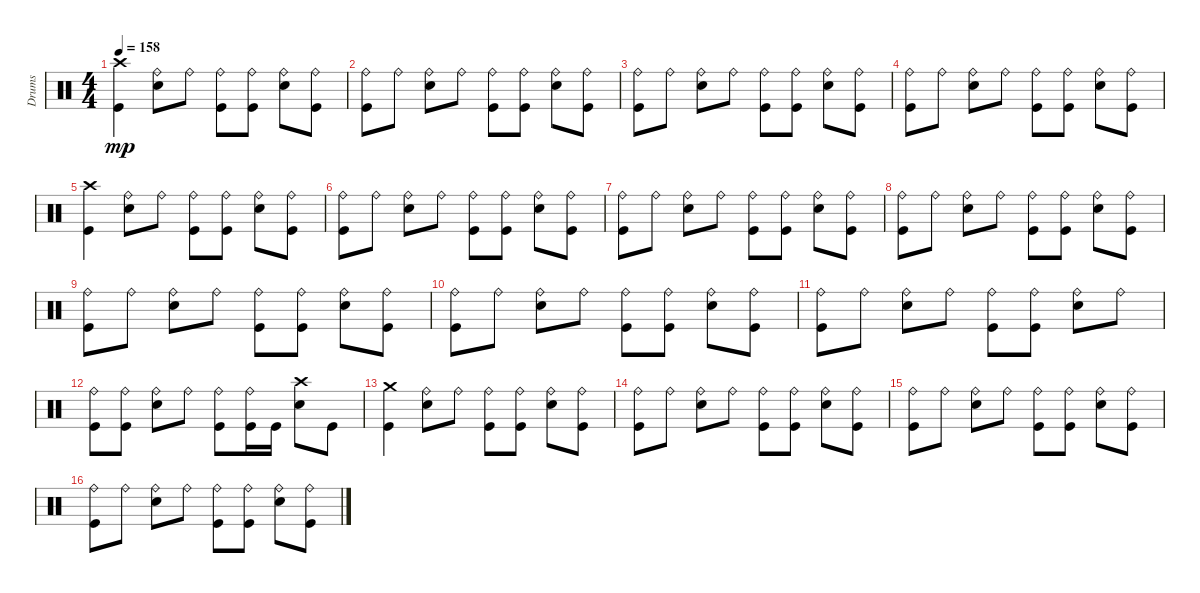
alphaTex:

\track ("Drums" "Drums") {instrument percussion}
\staff {score}
\articulation defaults
\ts (4 4)
\tempo 158
\clef neutral
\ks c
("Crash high (hit)" "Kick (hit)").4{dy mp} ("Ride (bell)" "Snare (hit) 2").8 "Ride (bell)".8 ("Ride (bell)" "Kick (hit)").8 ("Ride (bell)" "Kick (hit)").8 ("Ride (bell)" "Snare (hit) 2").8 ("Ride (bell)" "Kick (hit)").8 |
("Ride (bell)" "Kick (hit)").8 "Ride (bell)".8 ("Ride (bell)" "Snare (hit) 2").8 "Ride (bell)".8 ("Ride (bell)" "Kick (hit)").8 ("Ride (bell)" "Kick (hit)").8 ("Ride (bell)" "Snare (hit) 2").8 ("Ride (bell)" "Kick (hit)").8 |
("Ride (bell)" "Kick (hit)").8 "Ride (bell)".8 ("Ride (bell)" "Snare (hit) 2").8 "Ride (bell)".8 ("Ride (bell)" "Kick (hit)").8 ("Ride (bell)" "Kick (hit)").8 ("Ride (bell)" "Snare (hit) 2").8 ("Ride (bell)" "Kick (hit)").8 |
("Ride (bell)" "Kick (hit)").8 "Ride (bell)".8 ("Ride (bell)" "Snare (hit) 2").8 "Ride (bell)".8 ("Ride (bell)" "Kick (hit)").8 ("Ride (bell)" "Kick (hit)").8 ("Ride (bell)" "Snare (hit) 2").8 ("Ride (bell)" "Kick (hit)").8 |
("Crash high (hit)" "Kick (hit)").4 ("Ride (bell)" "Snare (hit) 2").8 "Ride (bell)".8 ("Ride (bell)" "Kick (hit)").8 ("Ride (bell)" "Kick (hit)").8 ("Ride (bell)" "Snare (hit) 2").8 ("Ride (bell)" "Kick (hit)").8 |
("Ride (bell)" "Kick (hit)").8 "Ride (bell)".8 ("Ride (bell)" "Snare (hit) 2").8 "Ride (bell)".8 ("Ride (bell)" "Kick (hit)").8 ("Ride (bell)" "Kick (hit)").8 ("Ride (bell)" "Snare (hit) 2").8 ("Ride (bell)" "Kick (hit)").8 |
("Ride (bell)" "Kick (hit)").8 "Ride (bell)".8 ("Ride (bell)" "Snare (hit) 2").8 "Ride (bell)".8 ("Ride (bell)" "Kick (hit)").8 ("Ride (bell)" "Kick (hit)").8 ("Ride (bell)" "Snare (hit) 2").8 ("Ride (bell)" "Kick (hit)").8 |
("Ride (bell)" "Kick (hit)").8 "Ride (bell)".8 ("Ride (bell)" "Snare (hit) 2").8 "Ride (bell)".8 ("Ride (bell)" "Kick (hit)").8 ("Ride (bell)" "Kick (hit)").8 ("Ride (bell)" "Snare (hit) 2").8 ("Ride (bell)" "Kick (hit)").8 |
("Ride (bell)" "Kick (hit)").8 "Ride (bell)".8 ("Ride (bell)" "Snare (hit) 2").8 "Ride (bell)".8 ("Ride (bell)" "Kick (hit)").8 ("Ride (bell)" "Kick (hit)").8 ("Ride (bell)" "Snare (hit) 2").8 ("Ride (bell)" "Kick (hit)").8 |
("Ride (bell)" "Kick (hit)").8 "Ride (bell)".8 ("Ride (bell)" "Snare (hit) 2").8 "Ride (bell)".8 ("Ride (bell)" "Kick (hit)").8 ("Ride (bell)" "Kick (hit)").8 ("Ride (bell)" "Snare (hit) 2").8 ("Ride (bell)" "Kick (hit)").8 |
("Ride (bell)" "Kick (hit)").8 "Ride (bell)".8 ("Ride (bell)" "Snare (hit) 2").8 "Ride (bell)".8 ("Ride (bell)" "Kick (hit)").8 ("Ride (bell)" "Kick (hit)").8 ("Ride (bell)" "Snare (hit) 2").8 "Ride (bell)".8 |
("Ride (bell)" "Kick (hit)").8 ("Ride (bell)" "Kick (hit)").8 ("Ride (bell)" "Snare (hit) 2").8 "Ride (bell)".8 ("Ride (bell)" "Kick (hit)").8 ("Ride (bell)" "Kick (hit)").16 "Kick (hit)".16 ("Crash high (hit)" "Snare (hit) 2").8 "Kick (hit)".8 |
("Crash medium (hit)" "Kick (hit)").4 ("Ride (bell)" "Snare (hit) 2").8 "Ride (bell)".8 ("Ride (bell)" "Kick (hit)").8 ("Ride (bell)" "Kick (hit)").8 ("Ride (bell)" "Snare (hit) 2").8 ("Ride (bell)" "Kick (hit)").8 |
("Ride (bell)" "Kick (hit)").8 "Ride (bell)".8 ("Ride (bell)" "Snare (hit) 2").8 "Ride (bell)".8 ("Ride (bell)" "Kick (hit)").8 ("Ride (bell)" "Kick (hit)").8 ("Ride (bell)" "Snare (hit) 2").8 ("Ride (bell)" "Kick (hit)").8 |
("Ride (bell)" "Kick (hit)").8 "Ride (bell)".8 ("Ride (bell)" "Snare (hit) 2").8 "Ride (bell)".8 ("Ride (bell)" "Kick (hit)").8 ("Ride (bell)" "Kick (hit)").8 ("Ride (bell)" "Snare (hit) 2").8 ("Ride (bell)" "Kick (hit)").8 |
("Ride (bell)" "Kick (hit)").8 "Ride (bell)".8 ("Ride (bell)" "Snare (hit) 2").8 "Ride (bell)".8 ("Ride (bell)" "Kick (hit)").8 ("Ride (bell)" "Kick (hit)").8 ("Ride (bell)" "Snare (hit) 2").8 ("Ride (bell)" "Kick (hit)").8
